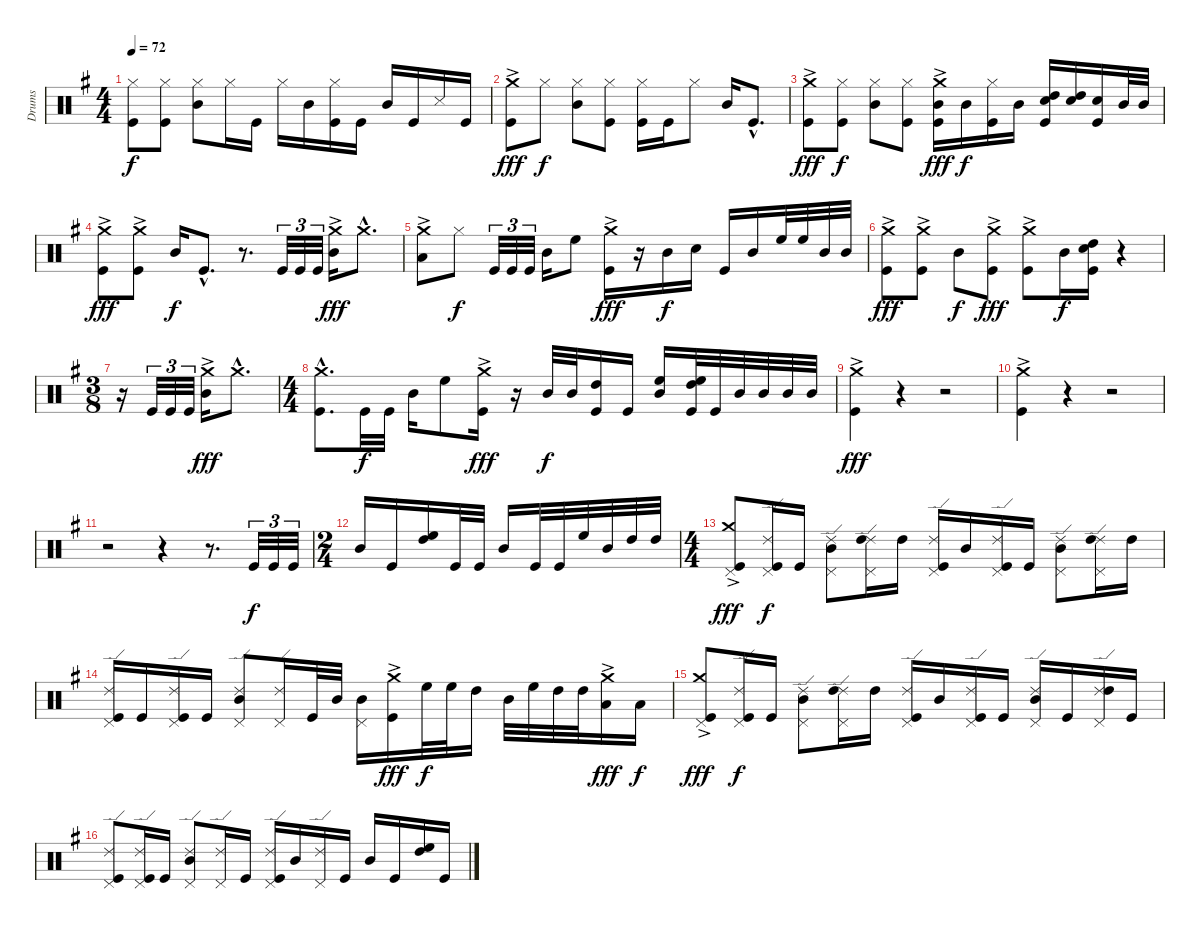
\track ("Drums" "Drums") {instrument percussion}
\staff {score}
\articulation defaults
\ts (4 4)
\tempo 72
\clef neutral
\ks g
("Hi-Hat (closed)" "Kick (hit)").8{dy f} ("Hi-Hat (closed)" "Kick (hit)").8 ("Hi-Hat (closed)" "Mid Tom (hit)").8 "Hi-Hat (closed)".16 "Kick (hit)".16 "Hi-Hat (closed)".16 "Mid Tom (hit)".16 ("Hi-Hat (closed)" "Kick (hit)").16 "Kick (hit)".16 "Mid Tom (hit)".16 "Kick (hit)".16 "Snare (side stick) 3".16 "Kick (hit)".16 |
("Crash medium (hit)"{ac} "Kick (hit)").8{dy fff} "Hi-Hat (closed)".8{dy f} ("Hi-Hat (closed)" "Mid Tom (hit)").8 ("Hi-Hat (closed)" "Kick (hit)").8 ("Hi-Hat (closed)" "Kick (hit)").16 "Kick (hit)".16 "Hi-Hat (closed)".8 "Mid Tom (hit)".16 "Kick (hit)"{hac}.8{d} |
("Crash medium (hit)"{ac} "Kick (hit)").8{dy fff} ("Hi-Hat (closed)" "Kick (hit)").8{dy f} ("Hi-Hat (closed)" "Mid Tom (hit)").8 ("Hi-Hat (closed)" "Kick (hit)").8 ("Crash medium (hit)"{ac} "Mid Tom (hit)" "Kick (hit)").16{dy fff} "Mid Tom (hit)".16{dy f} ("Hi-Hat (closed)" "Kick (hit)").16 "Mid Tom (hit)".16 ("High Tom (hit)" "Electric Snare (hit)" "Kick (hit)").16 ("High Tom (hit)" "Electric Snare (hit)").16 ("Electric Snare (hit)" "Kick (hit)").16 "Mid Tom (hit)".32 "Mid Tom (hit)".32 |
("Crash medium (hit)"{ac} "Kick (hit)").8{dy fff} ("Crash medium (hit)"{ac} "Kick (hit)").8 "Mid Tom (hit)".16{dy f} "Kick (hit)"{hac}.8{d} r.8{d} "Kick (hit)".32{tu (3 2)} "Kick (hit)".32{tu (3 2)} "Kick (hit)".32{tu (3 2)} ("Crash medium (hit)"{ac} "Mid Tom (hit)").16{dy fff} "Crash medium (hit)"{hac}.8{d} |
("Crash medium (hit)"{ac} "Low Floor Tom (hit)").8 "Hi-Hat (closed)".8{dy f} "Kick (hit)".32{tu (3 2)} "Kick (hit)".32{tu (3 2)} "Kick (hit)".32{tu (3 2)} "Mid Tom (hit)".16 "High Floor Tom (hit)".8 ("Crash medium (hit)"{ac} "Kick (hit)").16{dy fff} r.16 "Mid Tom (hit)".16{dy f} "Electric Snare (hit)".16 "Kick (hit)".16 "Mid Tom (hit)".16 "High Floor Tom (hit)".32 "High Floor Tom (hit)".32 "Mid Tom (hit)".32 "Mid Tom (hit)".32 |
("Crash medium (hit)"{ac} "Kick (hit)").8{dy fff} ("Crash medium (hit)"{ac} "Kick (hit)").8 "Mid Tom (hit)".8{dy f} ("Crash medium (hit)"{ac} "Kick (hit)").8{dy fff} ("Crash medium (hit)"{ac} "Kick (hit)").8 "Mid Tom (hit)".16{dy f} ("High Tom (hit)" "Electric Snare (hit)" "Kick (hit)").16 r.4 |
\ts (3 8)
r.16 "Kick (hit)".32{tu (3 2)} "Kick (hit)".32{tu (3 2)} "Kick (hit)".32{tu (3 2)} ("Crash medium (hit)"{ac} "Mid Tom (hit)").16{dy fff} "Crash medium (hit)"{hac}.8{d} |
\ts (4 4)
("Crash medium (hit)"{hac} "Kick (hit)"{hac}).8{d} "Kick (hit)".32{dy f} "Kick (hit)".32 "Mid Tom (hit)".16 "High Floor Tom (hit)".8 ("Crash medium (hit)"{ac} "Kick (hit)").16{dy fff} r.16 "Mid Tom (hit)".32{dy f} "Mid Tom (hit)".32 ("High Tom (hit)" "Kick (hit)").16 "Kick (hit)".16 ("High Floor Tom (hit)" "Mid Tom (hit)").16 ("High Floor Tom (hit)" "High Tom (hit)" "Kick (hit)").32 "Kick (hit)".32 "Mid Tom (hit)".32 "Mid Tom (hit)".32 "Mid Tom (hit)".32 "Mid Tom (hit)".32 |
("Crash medium (hit)"{ac} "Kick (hit)").4{dy fff} r.4 r.2 |
("Crash medium (hit)"{ac} "Kick (hit)").4 r.4 r.2 |
r.2 r.4 r.8{d} "Kick (hit)".32{tu (3 2) dy f} "Kick (hit)".32{tu (3 2)} "Kick (hit)".32{tu (3 2)} |
\ts (2 4)
"Mid Tom (hit)".16 "Kick (hit)".16 ("High Floor Tom (hit)" "High Tom (hit)").16 "Kick (hit)".32 "Kick (hit)".32 "Mid Tom (hit)".16 "Kick (hit)".32 "Kick (hit)".32 "High Floor Tom (hit)".32 "Mid Tom (hit)".32 "High Tom (hit)".32 "High Tom (hit)".32 |
\ts (4 4)
("Crash medium (hit)"{ac} "Kick (hit)" "Pedal Hi-Hat (hit)").8{dy fff} ("Ride (edge) 2" "Kick (hit)" "Pedal Hi-Hat (hit)").16{dy f} "Kick (hit)".16 ("Ride (edge) 2" "Mid Tom (hit)" "Pedal Hi-Hat (hit)").8 ("Ride (edge) 2" "High Tom (hit)" "Pedal Hi-Hat (hit)").16 "High Tom (hit)".16 ("Ride (edge) 2" "Kick (hit)" "Pedal Hi-Hat (hit)").16 "Mid Tom (hit)".16 ("Ride (edge) 2" "Kick (hit)" "Pedal Hi-Hat (hit)").16 "Kick (hit)".16 ("Ride (edge) 2" "Mid Tom (hit)" "Pedal Hi-Hat (hit)").8 ("Ride (edge) 2" "High Tom (hit)" "Pedal Hi-Hat (hit)").16 "High Tom (hit)".16 |
("Ride (edge) 2" "Kick (hit)" "Pedal Hi-Hat (hit)").16 "Kick (hit)".16 ("Ride (edge) 2" "Kick (hit)" "Pedal Hi-Hat (hit)").16 "Kick (hit)".16 ("Ride (edge) 2" "Mid Tom (hit)" "Pedal Hi-Hat (hit)").8 ("Ride (edge) 2" "Pedal Hi-Hat (hit)").16 "Kick (hit)".32 "Mid Tom (hit)".32 ("Mid Tom (hit)" "Pedal Hi-Hat (hit)").16 ("Crash medium (hit)"{ac} "Kick (hit)").16{dy fff} "High Floor Tom (hit)".32{dy f} "High Floor Tom (hit)".32 "High Tom (hit)".16 "Mid Tom (hit)".32 "High Floor Tom (hit)".32 "High Tom (hit)".32 "High Tom (hit)".32 ("Crash medium (hit)"{ac} "Low Tom (hit)").16{dy fff} "Low Tom (hit)".16{dy f} |
("Crash medium (hit)"{ac} "Kick (hit)" "Pedal Hi-Hat (hit)").8{dy fff} ("Ride (edge) 2" "Kick (hit)" "Pedal Hi-Hat (hit)").16{dy f} "Kick (hit)".16 ("Ride (edge) 2" "Mid Tom (hit)" "Pedal Hi-Hat (hit)").8 ("Ride (edge) 2" "High Tom (hit)" "Pedal Hi-Hat (hit)").16 "High Tom (hit)".16 ("Ride (edge) 2" "Kick (hit)" "Pedal Hi-Hat (hit)").16 "Mid Tom (hit)".16 ("Ride (edge) 2" "Kick (hit)" "Pedal Hi-Hat (hit)").16 "Kick (hit)".16 ("Ride (edge) 2" "Mid Tom (hit)" "Pedal Hi-Hat (hit)").16 "Kick (hit)".16 ("Ride (edge) 2" "High Tom (hit)" "Pedal Hi-Hat (hit)").16 "Kick (hit)".16 |
("Ride (edge) 2" "Kick (hit)" "Pedal Hi-Hat (hit)").8 ("Ride (edge) 2" "Kick (hit)" "Pedal Hi-Hat (hit)").16 "Kick (hit)".16 ("Ride (edge) 2" "Mid Tom (hit)" "Pedal Hi-Hat (hit)").8 ("Ride (edge) 2" "Pedal Hi-Hat (hit)").16 "Kick (hit)".16 ("Ride (edge) 2" "Kick (hit)" "Pedal Hi-Hat (hit)").16 "Mid Tom (hit)".16 ("Ride (edge) 2" "Pedal Hi-Hat (hit)").16 "Kick (hit)".16 "Mid Tom (hit)".16 "Kick (hit)".16 ("High Floor Tom (hit)" "High Tom (hit)").16 "Kick (hit)".16
